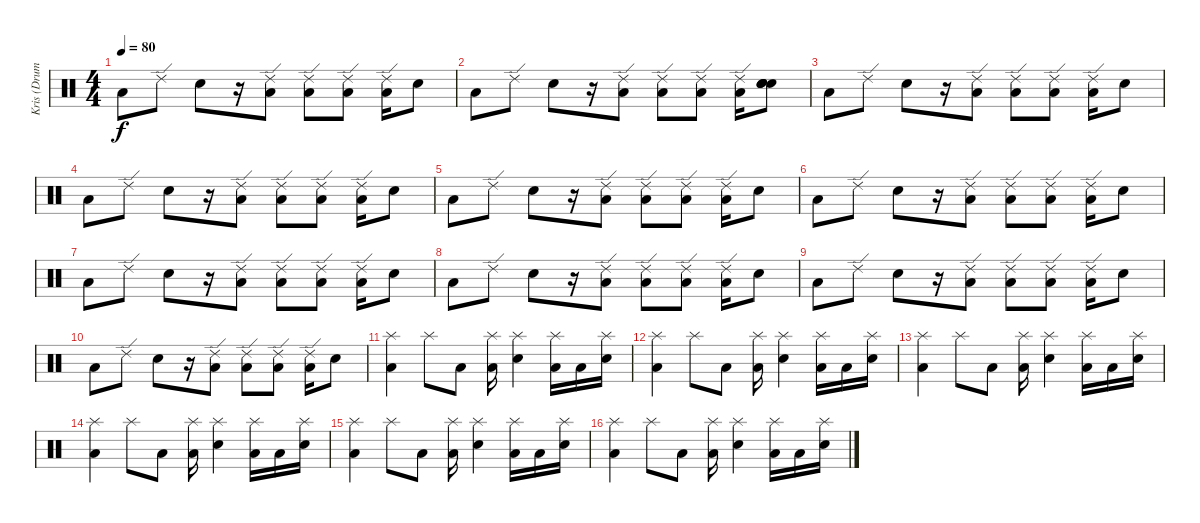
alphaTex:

\track ("Kris (Drums)" "Kris (Drum") {instrument percussion}
\staff {score}
\articulation defaults
\ts (4 4)
\tempo 80
\clef neutral
\ks c "Low Tom (hit)".8{dy f} "Ride (edge) 2".8 "Metronome (bell)".8
r.16 ("Ride (edge) 2" "Low Tom (hit)").8 ("Ride (edge) 2" "Low Tom (hit)").8 ("Ride (edge) 2" "Low Tom (hit)").8 ("Ride (edge) 2" "Low Tom (hit)").16 "Metronome (bell)".8 |
"Low Tom (hit)".8 "Ride (edge) 2".8 "Metronome (bell)".8 r.16 ("Ride (edge) 2" "Low Tom (hit)").8 ("Ride (edge) 2" "Low Tom (hit)").8 ("Ride (edge) 2" "Low Tom (hit)").8 ("Ride (edge) 2" "Low Tom (hit)").16 ("Metronome (bell)" "Metronome (bell)" "Metronome (bell)" "Metronome (bell)").8 |
"Low Tom (hit)".8 "Ride (edge) 2".8 "Metronome (bell)".8 r.16 ("Ride (edge) 2" "Low Tom (hit)").8 ("Ride (edge) 2" "Low Tom (hit)").8 ("Ride (edge) 2" "Low Tom (hit)").8 ("Ride (edge) 2" "Low Tom (hit)").16 "Metronome (bell)".8 |
"Low Tom (hit)".8 "Ride (edge) 2".8 "Metronome (bell)".8 r.16 ("Ride (edge) 2" "Low Tom (hit)").8 ("Ride (edge) 2" "Low Tom (hit)").8 ("Ride (edge) 2" "Low Tom (hit)").8 ("Ride (edge) 2" "Low Tom (hit)").16 "Metronome (bell)".8 |
"Low Tom (hit)".8 "Ride (edge) 2".8 "Metronome (bell)".8 r.16 ("Ride (edge) 2" "Low Tom (hit)").8 ("Ride (edge) 2" "Low Tom (hit)").8 ("Ride (edge) 2" "Low Tom (hit)").8 ("Ride (edge) 2" "Low Tom (hit)").16 "Metronome (bell)".8 |
"Low Tom (hit)".8 "Ride (edge) 2".8 "Metronome (bell)".8 r.16 ("Ride (edge) 2" "Low Tom (hit)").8 ("Ride (edge) 2" "Low Tom (hit)").8 ("Ride (edge) 2" "Low Tom (hit)").8 ("Ride (edge) 2" "Low Tom (hit)").16 "Metronome (bell)".8 |
"Low Tom (hit)".8 "Ride (edge) 2".8 "Metronome (bell)".8 r.16 ("Ride (edge) 2" "Low Tom (hit)").8 ("Ride (edge) 2" "Low Tom (hit)").8 ("Ride (edge) 2" "Low Tom (hit)").8 ("Ride (edge) 2" "Low Tom (hit)").16 "Metronome (bell)".8 |
"Low Tom (hit)".8 "Ride (edge) 2".8 "Metronome (bell)".8 r.16 ("Ride (edge) 2" "Low Tom (hit)").8 ("Ride (edge) 2" "Low Tom (hit)").8 ("Ride (edge) 2" "Low Tom (hit)").8 ("Ride (edge) 2" "Low Tom (hit)").16 "Metronome (bell)".8 |
"Low Tom (hit)".8 "Ride (edge) 2".8 "Metronome (bell)".8 r.16 ("Ride (edge) 2" "Low Tom (hit)").8 ("Ride (edge) 2" "Low Tom (hit)").8 ("Ride (edge) 2" "Low Tom (hit)").8 ("Ride (edge) 2" "Low Tom (hit)").16 "Metronome (bell)".8 |
"Low Tom (hit)".8 "Ride (edge) 2".8 "Metronome (bell)".8 r.16 ("Ride (edge) 2" "Low Tom (hit)").8 ("Ride (edge) 2" "Low Tom (hit)").8 ("Ride (edge) 2" "Low Tom (hit)").8 ("Ride (edge) 2" "Low Tom (hit)").16 "Metronome (bell)".8 |
("Splash (hit)" "Low Tom (hit)").4 "Splash (hit)".8 "Low Tom (hit)".8 ("Splash (hit)" "Low Tom (hit)").16 ("Splash (hit)" "Metronome (bell)").4 ("Splash (hit)" "Low Tom (hit)").16 "Low Tom (hit)".16 ("Splash (hit)" "Metronome (bell)").16 |
("Splash (hit)" "Low Tom (hit)").4 "Splash (hit)".8 "Low Tom (hit)".8 ("Splash (hit)" "Low Tom (hit)").16 ("Splash (hit)" "Metronome (bell)").4 ("Splash (hit)" "Low Tom (hit)").16 "Low Tom (hit)".16 ("Splash (hit)" "Metronome (bell)").16 |
("Splash (hit)" "Low Tom (hit)").4 "Splash (hit)".8 "Low Tom (hit)".8 ("Splash (hit)" "Low Tom (hit)").16 ("Splash (hit)" "Metronome (bell)").4 ("Splash (hit)" "Low Tom (hit)").16 "Low Tom (hit)".16 ("Splash (hit)" "Metronome (bell)").16 |
("Splash (hit)" "Low Tom (hit)").4 "Splash (hit)".8 "Low Tom (hit)".8 ("Splash (hit)" "Low Tom (hit)").16 ("Splash (hit)" "Metronome (bell)").4 ("Splash (hit)" "Low Tom (hit)").16 "Low Tom (hit)".16 ("Splash (hit)" "Metronome (bell)").16 |
("Splash (hit)" "Low Tom (hit)").4 "Splash (hit)".8 "Low Tom (hit)".8 ("Splash (hit)" "Low Tom (hit)").16 ("Splash (hit)" "Metronome (bell)").4 ("Splash (hit)" "Low Tom (hit)").16 "Low Tom (hit)".16 ("Splash (hit)" "Metronome (bell)").16 |
("Splash (hit)" "Low Tom (hit)").4 "Splash (hit)".8 "Low Tom (hit)".8 ("Splash (hit)" "Low Tom (hit)").16 ("Splash (hit)" "Metronome (bell)").4 ("Splash (hit)" "Low Tom (hit)").16 "Low Tom (hit)".16 ("Splash (hit)" "Metronome (bell)").16
